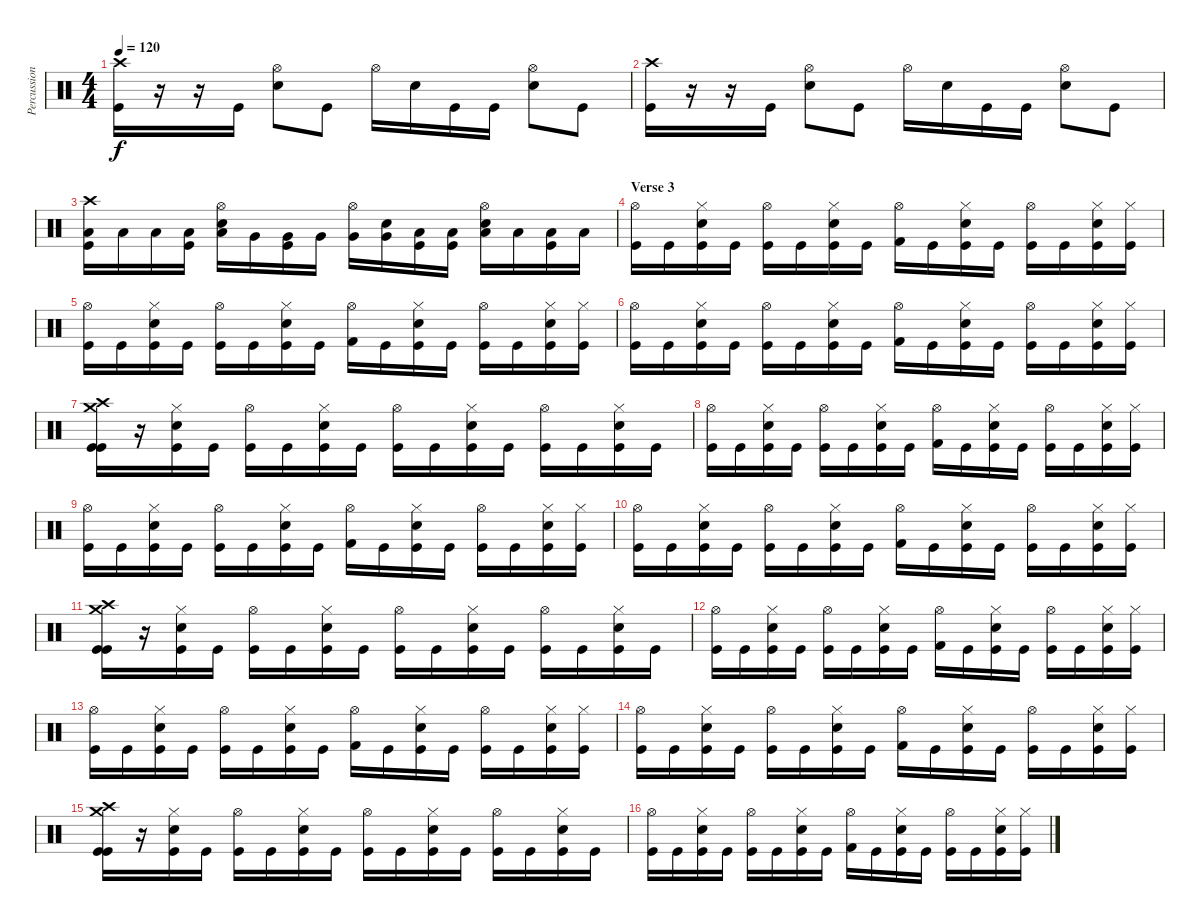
\track ("Percussion" "Percussion") {instrument percussion}
\staff {score}
\articulation defaults
\ts (4 4)
\tempo 120
\clef neutral
\ks c
("Crash high (hit)" "Kick (hit)").16{dy f} r.16 r.16 "Kick (hit)".16 ("Hi-Hat (open)" "Electric Snare (hit)").8 "Kick (hit)".8 "Hi-Hat (open)".16 "Electric Snare (hit)".16 "Kick (hit)".16 "Kick (hit)".16 ("Hi-Hat (open)" "Electric Snare (hit)").8 "Kick (hit)".8 |
("Crash high (hit)" "Kick (hit)").16 r.16 r.16 "Kick (hit)".16 ("Hi-Hat (open)" "Electric Snare (hit)").8 "Kick (hit)".8 "Hi-Hat (open)".16 "Electric Snare (hit)".16 "Kick (hit)".16 "Kick (hit)".16 ("Hi-Hat (open)" "Electric Snare (hit)").8 "Kick (hit)".8 |
("Crash high (hit)" "Low Tom (hit)" "Kick (hit)").16 "Low Tom (hit)".16 "Low Tom (hit)".16 ("Low Tom (hit)" "Kick (hit)").16 ("Hi-Hat (open)" "Low Tom (hit)" "Electric Snare (hit)").16 "Very Low Tom (hit)".16 ("Very Low Tom (hit)" "Kick (hit)").16 "Very Low Tom (hit)".16 ("Hi-Hat (open)" "Very Low Tom (hit)").16 ("Very Low Tom (hit)" "Electric Snare (hit)").16 ("Low Floor Tom (hit)" "Kick (hit)").16 ("Low Floor Tom (hit)" "Kick (hit)").16 ("Hi-Hat (open)" "Low Floor Tom (hit)" "Electric Snare (hit)").16 "Low Floor Tom (hit)".16 ("Low Floor Tom (hit)" "Kick (hit)").16 "Low Floor Tom (hit)".16 |
\section ("" "Verse 3")
("Kick (hit)" "Hi-Hat (open)").16 "Kick (hit)".16 ("Kick (hit)" "Electric Snare (hit)" "Hi-Hat (closed)").16 "Kick (hit)".16 ("Kick (hit)" "Hi-Hat (open)").16 "Kick (hit)".16 ("Kick (hit)" "Electric Snare (hit)" "Hi-Hat (closed)").16 "Kick (hit)".16 ("Kick (hit) 2" "Hi-Hat (open)").16 "Kick (hit)".16 ("Kick (hit)" "Electric Snare (hit)" "Hi-Hat (closed)").16 "Kick (hit)".16 ("Kick (hit)" "Hi-Hat (open)").16 "Kick (hit)".16 ("Kick (hit)" "Electric Snare (hit)" "Hi-Hat (closed)").16 ("Kick (hit)" "Hi-Hat (closed)").16 |
("Kick (hit)" "Hi-Hat (open)").16 "Kick (hit)".16 ("Kick (hit)" "Electric Snare (hit)" "Hi-Hat (closed)").16 "Kick (hit)".16 ("Kick (hit)" "Hi-Hat (open)").16 "Kick (hit)".16 ("Kick (hit)" "Electric Snare (hit)" "Hi-Hat (closed)").16 "Kick (hit)".16 ("Kick (hit) 2" "Hi-Hat (open)").16 "Kick (hit)".16 ("Kick (hit)" "Electric Snare (hit)" "Hi-Hat (closed)").16 "Kick (hit)".16 ("Kick (hit)" "Hi-Hat (open)").16 "Kick (hit)".16 ("Kick (hit)" "Electric Snare (hit)" "Hi-Hat (closed)").16 ("Kick (hit)" "Hi-Hat (closed)").16 |
("Kick (hit)" "Hi-Hat (open)").16 "Kick (hit)".16 ("Kick (hit)" "Electric Snare (hit)" "Hi-Hat (closed)").16 "Kick (hit)".16 ("Kick (hit)" "Hi-Hat (open)").16 "Kick (hit)".16 ("Kick (hit)" "Electric Snare (hit)" "Hi-Hat (closed)").16 "Kick (hit)".16 ("Kick (hit) 2" "Hi-Hat (open)").16 "Kick (hit)".16 ("Kick (hit)" "Electric Snare (hit)" "Hi-Hat (closed)").16 "Kick (hit)".16 ("Kick (hit)" "Hi-Hat (open)").16 "Kick (hit)".16 ("Kick (hit)" "Electric Snare (hit)" "Hi-Hat (closed)").16 ("Kick (hit)" "Hi-Hat (closed)").16 |
("Kick (hit)" "Kick (hit)" "Crash high (hit)" "Crash medium (hit)").16 r.16 ("Kick (hit)" "Electric Snare (hit)" "Hi-Hat (closed)").16 "Kick (hit)".16 ("Kick (hit)" "Hi-Hat (open)").16 "Kick (hit)".16 ("Kick (hit)" "Electric Snare (hit)" "Hi-Hat (closed)").16 "Kick (hit)".16 ("Kick (hit)" "Hi-Hat (open)").16 "Kick (hit)".16 ("Kick (hit)" "Electric Snare (hit)" "Hi-Hat (closed)").16 "Kick (hit)".16 ("Kick (hit)" "Hi-Hat (open)").16 "Kick (hit)".16 ("Kick (hit)" "Electric Snare (hit)" "Hi-Hat (closed)").16 "Kick (hit)".16 |
("Kick (hit)" "Hi-Hat (open)").16 "Kick (hit)".16 ("Kick (hit)" "Electric Snare (hit)" "Hi-Hat (closed)").16 "Kick (hit)".16 ("Kick (hit)" "Hi-Hat (open)").16 "Kick (hit)".16 ("Kick (hit)" "Electric Snare (hit)" "Hi-Hat (closed)").16 "Kick (hit)".16 ("Kick (hit) 2" "Hi-Hat (open)").16 "Kick (hit)".16 ("Kick (hit)" "Electric Snare (hit)" "Hi-Hat (closed)").16 "Kick (hit)".16 ("Kick (hit)" "Hi-Hat (open)").16 "Kick (hit)".16 ("Kick (hit)" "Electric Snare (hit)" "Hi-Hat (closed)").16 ("Kick (hit)" "Hi-Hat (closed)").16 |
("Kick (hit)" "Hi-Hat (open)").16 "Kick (hit)".16 ("Kick (hit)" "Electric Snare (hit)" "Hi-Hat (closed)").16 "Kick (hit)".16 ("Kick (hit)" "Hi-Hat (open)").16 "Kick (hit)".16 ("Kick (hit)" "Electric Snare (hit)" "Hi-Hat (closed)").16 "Kick (hit)".16 ("Kick (hit) 2" "Hi-Hat (open)").16 "Kick (hit)".16 ("Kick (hit)" "Electric Snare (hit)" "Hi-Hat (closed)").16 "Kick (hit)".16 ("Kick (hit)" "Hi-Hat (open)").16 "Kick (hit)".16 ("Kick (hit)" "Electric Snare (hit)" "Hi-Hat (closed)").16 ("Kick (hit)" "Hi-Hat (closed)").16 |
("Kick (hit)" "Hi-Hat (open)").16 "Kick (hit)".16 ("Kick (hit)" "Electric Snare (hit)" "Hi-Hat (closed)").16 "Kick (hit)".16 ("Kick (hit)" "Hi-Hat (open)").16 "Kick (hit)".16 ("Kick (hit)" "Electric Snare (hit)" "Hi-Hat (closed)").16 "Kick (hit)".16 ("Kick (hit) 2" "Hi-Hat (open)").16 "Kick (hit)".16 ("Kick (hit)" "Electric Snare (hit)" "Hi-Hat (closed)").16 "Kick (hit)".16 ("Kick (hit)" "Hi-Hat (open)").16 "Kick (hit)".16 ("Kick (hit)" "Electric Snare (hit)" "Hi-Hat (closed)").16 ("Kick (hit)" "Hi-Hat (closed)").16 |
("Kick (hit)" "Kick (hit)" "Crash high (hit)" "Crash medium (hit)").16 r.16 ("Kick (hit)" "Electric Snare (hit)" "Hi-Hat (closed)").16 "Kick (hit)".16 ("Kick (hit)" "Hi-Hat (open)").16 "Kick (hit)".16 ("Kick (hit)" "Electric Snare (hit)" "Hi-Hat (closed)").16 "Kick (hit)".16 ("Kick (hit)" "Hi-Hat (open)").16 "Kick (hit)".16 ("Kick (hit)" "Electric Snare (hit)" "Hi-Hat (closed)").16 "Kick (hit)".16 ("Kick (hit)" "Hi-Hat (open)").16 "Kick (hit)".16 ("Kick (hit)" "Electric Snare (hit)" "Hi-Hat (closed)").16 "Kick (hit)".16 |
("Kick (hit)" "Hi-Hat (open)").16 "Kick (hit)".16 ("Kick (hit)" "Electric Snare (hit)" "Hi-Hat (closed)").16 "Kick (hit)".16 ("Kick (hit)" "Hi-Hat (open)").16 "Kick (hit)".16 ("Kick (hit)" "Electric Snare (hit)" "Hi-Hat (closed)").16 "Kick (hit)".16 ("Kick (hit) 2" "Hi-Hat (open)").16 "Kick (hit)".16 ("Kick (hit)" "Electric Snare (hit)" "Hi-Hat (closed)").16 "Kick (hit)".16 ("Kick (hit)" "Hi-Hat (open)").16 "Kick (hit)".16 ("Kick (hit)" "Electric Snare (hit)" "Hi-Hat (closed)").16 ("Kick (hit)" "Hi-Hat (closed)").16 |
("Kick (hit)" "Hi-Hat (open)").16 "Kick (hit)".16 ("Kick (hit)" "Electric Snare (hit)" "Hi-Hat (closed)").16 "Kick (hit)".16 ("Kick (hit)" "Hi-Hat (open)").16 "Kick (hit)".16 ("Kick (hit)" "Electric Snare (hit)" "Hi-Hat (closed)").16 "Kick (hit)".16 ("Kick (hit) 2" "Hi-Hat (open)").16 "Kick (hit)".16 ("Kick (hit)" "Electric Snare (hit)" "Hi-Hat (closed)").16 "Kick (hit)".16 ("Kick (hit)" "Hi-Hat (open)").16 "Kick (hit)".16 ("Kick (hit)" "Electric Snare (hit)" "Hi-Hat (closed)").16 ("Kick (hit)" "Hi-Hat (closed)").16 |
("Kick (hit)" "Hi-Hat (open)").16 "Kick (hit)".16 ("Kick (hit)" "Electric Snare (hit)" "Hi-Hat (closed)").16 "Kick (hit)".16 ("Kick (hit)" "Hi-Hat (open)").16 "Kick (hit)".16 ("Kick (hit)" "Electric Snare (hit)" "Hi-Hat (closed)").16 "Kick (hit)".16 ("Kick (hit) 2" "Hi-Hat (open)").16 "Kick (hit)".16 ("Kick (hit)" "Electric Snare (hit)" "Hi-Hat (closed)").16 "Kick (hit)".16 ("Kick (hit)" "Hi-Hat (open)").16 "Kick (hit)".16 ("Kick (hit)" "Electric Snare (hit)" "Hi-Hat (closed)").16 ("Kick (hit)" "Hi-Hat (closed)").16 |
("Kick (hit)" "Kick (hit)" "Crash high (hit)" "Crash medium (hit)").16 r.16 ("Kick (hit)" "Electric Snare (hit)" "Hi-Hat (closed)").16 "Kick (hit)".16 ("Kick (hit)" "Hi-Hat (open)").16 "Kick (hit)".16 ("Kick (hit)" "Electric Snare (hit)" "Hi-Hat (closed)").16 "Kick (hit)".16 ("Kick (hit)" "Hi-Hat (open)").16 "Kick (hit)".16 ("Kick (hit)" "Electric Snare (hit)" "Hi-Hat (closed)").16 "Kick (hit)".16 ("Kick (hit)" "Hi-Hat (open)").16 "Kick (hit)".16 ("Kick (hit)" "Electric Snare (hit)" "Hi-Hat (closed)").16 "Kick (hit)".16 |
("Kick (hit)" "Hi-Hat (open)").16 "Kick (hit)".16 ("Kick (hit)" "Electric Snare (hit)" "Hi-Hat (closed)").16 "Kick (hit)".16 ("Kick (hit)" "Hi-Hat (open)").16 "Kick (hit)".16 ("Kick (hit)" "Electric Snare (hit)" "Hi-Hat (closed)").16 "Kick (hit)".16 ("Kick (hit) 2" "Hi-Hat (open)").16 "Kick (hit)".16 ("Kick (hit)" "Electric Snare (hit)" "Hi-Hat (closed)").16 "Kick (hit)".16 ("Kick (hit)" "Hi-Hat (open)").16 "Kick (hit)".16 ("Kick (hit)" "Electric Snare (hit)" "Hi-Hat (closed)").16 ("Kick (hit)" "Hi-Hat (closed)").16
